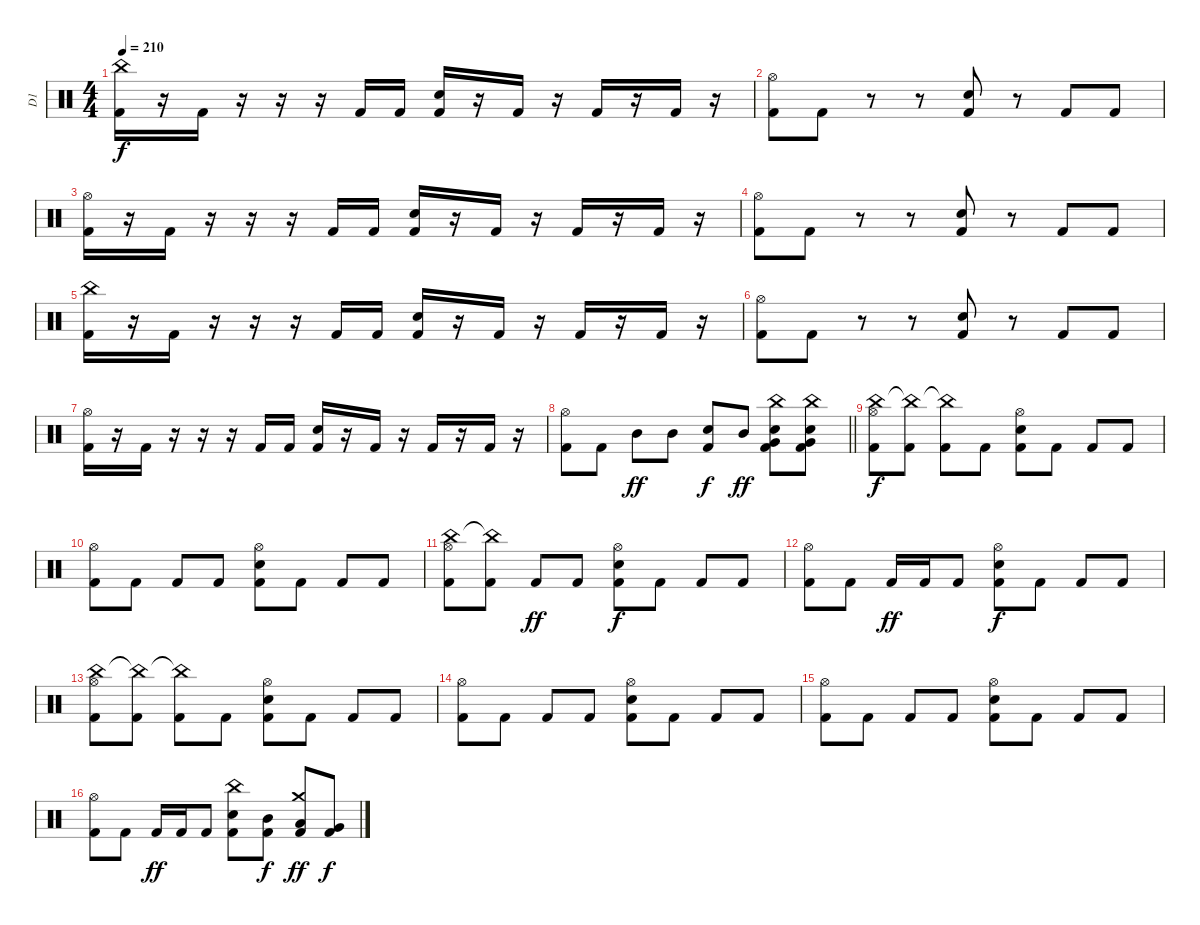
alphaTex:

\track ("D1" "D1") {instrument percussion}
\staff {score}
\articulation defaults
\ts (4 4)
\tempo 210
\clef neutral
\ks c
("China (hit)" "Kick (hit) 2").16{dy f} r.16 "Kick (hit) 2".16 r.16 r.16 r.16 "Kick (hit) 2".16 "Kick (hit) 2".16 ("Snare (hit) 2" "Kick (hit) 2").16 r.16 "Kick (hit) 2".16 r.16 "Kick (hit) 2".16 r.16 "Kick (hit) 2".16 r.16 |
("Hi-Hat (open)" "Kick (hit) 2").8 "Kick (hit) 2".8 r.8 r.8 ("Snare (hit) 2" "Kick (hit) 2").8 r.8 "Kick (hit) 2".8 "Kick (hit) 2".8 |
("Hi-Hat (open)" "Kick (hit) 2").16 r.16 "Kick (hit) 2".16 r.16 r.16 r.16 "Kick (hit) 2".16 "Kick (hit) 2".16 ("Snare (hit) 2" "Kick (hit) 2").16 r.16 "Kick (hit) 2".16 r.16 "Kick (hit) 2".16 r.16 "Kick (hit) 2".16 r.16 |
("Hi-Hat (open)" "Kick (hit) 2").8 "Kick (hit) 2".8 r.8 r.8 ("Snare (hit) 2" "Kick (hit) 2").8 r.8 "Kick (hit) 2".8 "Kick (hit) 2".8 |
("China (hit)" "Kick (hit) 2").16 r.16 "Kick (hit) 2".16 r.16 r.16 r.16 "Kick (hit) 2".16 "Kick (hit) 2".16 ("Snare (hit) 2" "Kick (hit) 2").16 r.16 "Kick (hit) 2".16 r.16 "Kick (hit) 2".16 r.16 "Kick (hit) 2".16 r.16 |
("Hi-Hat (open)" "Kick (hit) 2").8 "Kick (hit) 2".8 r.8 r.8 ("Snare (hit) 2" "Kick (hit) 2").8 r.8 "Kick (hit) 2".8 "Kick (hit) 2".8 |
("Hi-Hat (open)" "Kick (hit) 2").16 r.16 "Kick (hit) 2".16 r.16 r.16 r.16 "Kick (hit) 2".16 "Kick (hit) 2".16 ("Snare (hit) 2" "Kick (hit) 2").16 r.16 "Kick (hit) 2".16 r.16 "Kick (hit) 2".16 r.16 "Kick (hit) 2".16 r.16 |
\barLineRight lightlight
("Hi-Hat (open)" "Kick (hit) 2").8 "Kick (hit) 2".8 "Mid Tom (hit)".8{dy ff} "Mid Tom (hit)".8 ("Snare (hit) 2" "Kick (hit) 2").8{dy f} "Mid Tom (hit)".8{dy ff} ("China (hit)" "Snare (hit) 2" "Kick (hit) 2" "Very Low Tom (hit)").8 ("China (hit)" "Snare (hit) 2" "Kick (hit) 2" "Very Low Tom (hit)").8 |
\section ("" "")
("China (hit)" "Hi-Hat (open)" "Kick (hit) 2").8{dy f} ("China (hit)"{t} "Kick (hit) 2").8 ("China (hit)"{t} "Kick (hit) 2").8 "Kick (hit) 2".8 ("Hi-Hat (open)" "Snare (hit) 2" "Kick (hit) 2").8 "Kick (hit) 2".8 "Kick (hit) 2".8 "Kick (hit) 2".8 |
("Hi-Hat (open)" "Kick (hit) 2").8 "Kick (hit) 2".8 "Kick (hit) 2".8 "Kick (hit) 2".8 ("Hi-Hat (open)" "Snare (hit) 2" "Kick (hit) 2").8 "Kick (hit) 2".8 "Kick (hit) 2".8 "Kick (hit) 2".8 |
("China (hit)" "Hi-Hat (open)" "Kick (hit) 2").8 ("China (hit)"{t} "Kick (hit) 2").8 "Kick (hit) 2".8{dy ff} "Kick (hit) 2".8 ("Hi-Hat (open)" "Snare (hit) 2" "Kick (hit) 2").8{dy f} "Kick (hit) 2".8 "Kick (hit) 2".8 "Kick (hit) 2".8 |
("Hi-Hat (open)" "Kick (hit) 2").8 "Kick (hit) 2".8 "Kick (hit) 2".16{dy ff} "Kick (hit) 2".16 "Kick (hit) 2".8 ("Hi-Hat (open)" "Snare (hit) 2" "Kick (hit) 2").8{dy f} "Kick (hit) 2".8 "Kick (hit) 2".8 "Kick (hit) 2".8 |
("China (hit)" "Hi-Hat (open)" "Kick (hit) 2").8 ("China (hit)"{t} "Kick (hit) 2").8 ("China (hit)"{t} "Kick (hit) 2").8 "Kick (hit) 2".8 ("Hi-Hat (open)" "Snare (hit) 2" "Kick (hit) 2").8 "Kick (hit) 2".8 "Kick (hit) 2".8 "Kick (hit) 2".8 |
("Hi-Hat (open)" "Kick (hit) 2").8 "Kick (hit) 2".8 "Kick (hit) 2".8 "Kick (hit) 2".8 ("Hi-Hat (open)" "Snare (hit) 2" "Kick (hit) 2").8 "Kick (hit) 2".8 "Kick (hit) 2".8 "Kick (hit) 2".8 |
("Hi-Hat (open)" "Kick (hit) 2").8 "Kick (hit) 2".8 "Kick (hit) 2".8 "Kick (hit) 2".8 ("Hi-Hat (open)" "Snare (hit) 2" "Kick (hit) 2").8 "Kick (hit) 2".8 "Kick (hit) 2".8 "Kick (hit) 2".8 |
("Hi-Hat (open)" "Kick (hit) 2").8 "Kick (hit) 2".8 "Kick (hit) 2".16{dy ff} "Kick (hit) 2".16 "Kick (hit) 2".8 ("China (hit)" "Snare (hit) 2" "Kick (hit) 2").8 ("Mid Tom (hit)" "Kick (hit) 2").8{dy f} ("Crash medium (hit)" "Low Tom (hit)" "Kick (hit) 2").8{dy ff} ("Very Low Tom (hit)" "Kick (hit) 2").8{dy f}
